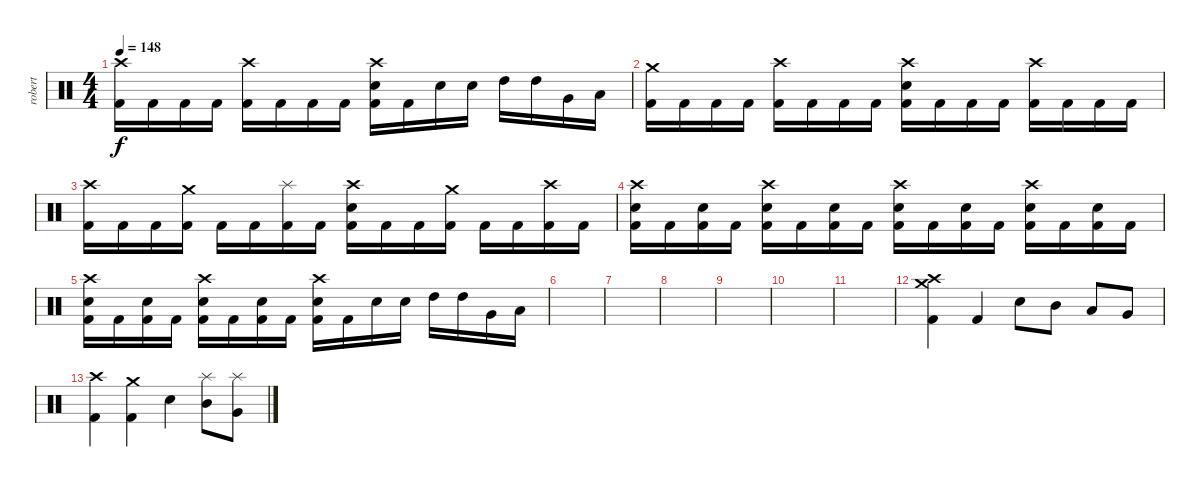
\track ("robert" "robert") {instrument percussion}
\staff {score}
\articulation defaults
\ts (4 4)
\tempo 148
\clef neutral
\ks c
("Crash high (hit)" "Kick (hit) 2").16{dy f} "Kick (hit) 2".16 "Kick (hit) 2".16 "Kick (hit) 2".16 ("Crash high (hit)" "Kick (hit) 2").16 "Kick (hit) 2".16 "Kick (hit) 2".16 "Kick (hit) 2".16 ("Electric Snare (hit)" "Crash high (hit)" "Kick (hit) 2").16 "Kick (hit) 2".16 "Electric Snare (hit)".16 "Electric Snare (hit)".16 "High Tom (hit)".16 "High Tom (hit)".16 "Very Low Tom (hit)".16 "Low Floor Tom (hit)".16 |
("Crash medium (hit)" "Kick (hit) 2").16 "Kick (hit) 2".16 "Kick (hit) 2".16 "Kick (hit) 2".16 ("Crash high (hit)" "Kick (hit) 2").16 "Kick (hit) 2".16 "Kick (hit) 2".16 "Kick (hit) 2".16 ("Electric Snare (hit)" "Crash high (hit)" "Kick (hit) 2").16 "Kick (hit) 2".16 "Kick (hit) 2".16 "Kick (hit) 2".16 ("Crash high (hit)" "Kick (hit) 2").16 "Kick (hit) 2".16 "Kick (hit) 2".16 "Kick (hit) 2".16 |
("Crash high (hit)" "Kick (hit) 2").16 "Kick (hit) 2".16 "Kick (hit) 2".16 ("Crash medium (hit)" "Kick (hit) 2").16 "Kick (hit) 2".16 "Kick (hit) 2".16 ("Splash (hit)" "Kick (hit) 2").16 "Kick (hit) 2".16 ("Electric Snare (hit)" "Crash high (hit)" "Kick (hit) 2").16 "Kick (hit) 2".16 "Kick (hit) 2".16 ("Crash medium (hit)" "Kick (hit) 2").16 "Kick (hit) 2".16 "Kick (hit) 2".16 ("Crash high (hit)" "Kick (hit) 2").16 "Kick (hit) 2".16 |
("Crash high (hit)" "Electric Snare (hit)" "Kick (hit) 2").16 "Kick (hit) 2".16 ("Electric Snare (hit)" "Kick (hit) 2").16 "Kick (hit) 2".16 ("Crash high (hit)" "Electric Snare (hit)" "Kick (hit) 2").16 "Kick (hit) 2".16 ("Electric Snare (hit)" "Kick (hit) 2").16 "Kick (hit) 2".16 ("Electric Snare (hit)" "Crash high (hit)" "Kick (hit) 2").16 "Kick (hit) 2".16 ("Electric Snare (hit)" "Kick (hit) 2").16 "Kick (hit) 2".16 ("Crash high (hit)" "Electric Snare (hit)" "Kick (hit) 2").16 "Kick (hit) 2".16 ("Electric Snare (hit)" "Kick (hit) 2").16 "Kick (hit) 2".16 |
("Crash high (hit)" "Electric Snare (hit)" "Kick (hit) 2").16 "Kick (hit) 2".16 ("Electric Snare (hit)" "Kick (hit) 2").16 "Kick (hit) 2".16 ("Crash high (hit)" "Electric Snare (hit)" "Kick (hit) 2").16 "Kick (hit) 2".16 ("Electric Snare (hit)" "Kick (hit) 2").16 "Kick (hit) 2".16 ("Electric Snare (hit)" "Crash high (hit)" "Kick (hit) 2").16 "Kick (hit) 2".16 "Electric Snare (hit)".16 "Electric Snare (hit)".16 "High Tom (hit)".16 "High Tom (hit)".16 "Very Low Tom (hit)".16 "Low Floor Tom (hit)".16 |
|
|
|
|
|
|
("Crash medium (hit)" "Kick (hit) 2" "Crash high (hit)").4 "Kick (hit) 2".4 "Electric Snare (hit)".8 "Mid Tom (hit)".8 "Low Tom (hit)".8 "Very Low Tom (hit)".8 |
("Kick (hit) 2" "Crash high (hit)").4 ("Kick (hit) 2" "Crash medium (hit)").4 "Electric Snare (hit)".4 ("Mid Tom (hit)" "Splash (hit)").8 ("Very Low Tom (hit)" "Splash (hit)").8
